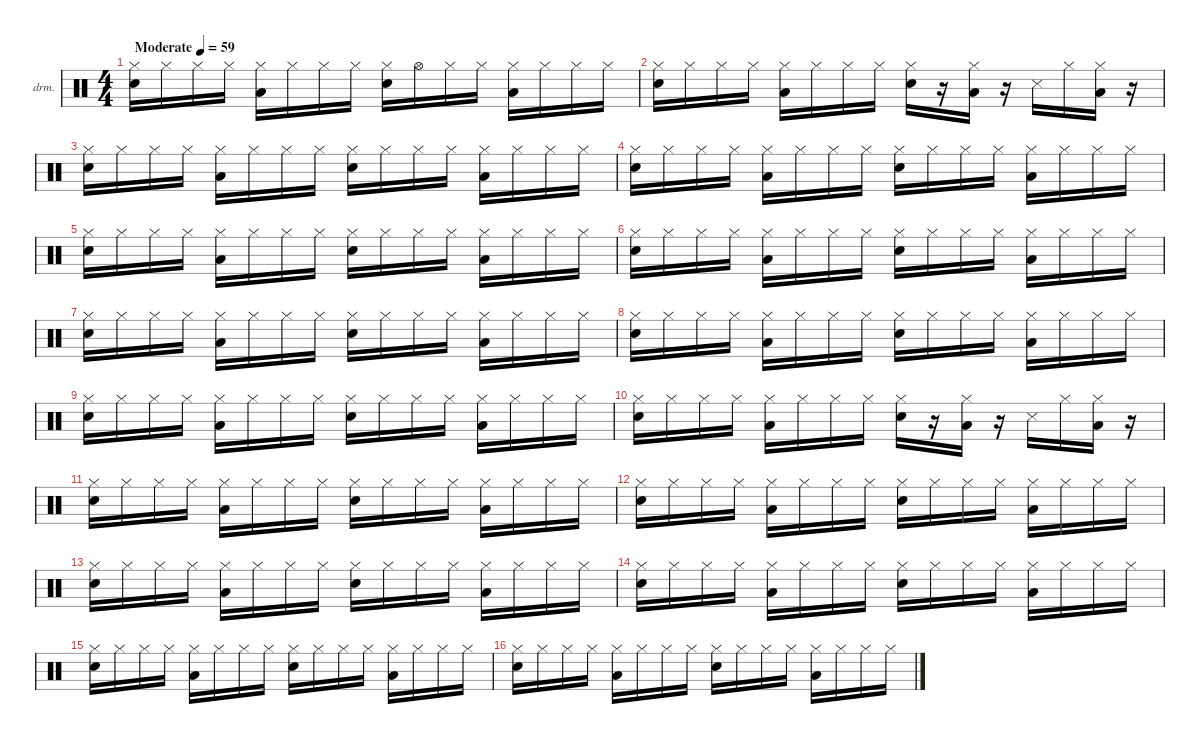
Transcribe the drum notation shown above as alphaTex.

\hideDynamics
\bracketExtendMode nobrackets
\firstSystemTrackNameOrientation horizontal
\track ("鸥厩扁" "drm.") {instrument percussion}
\staff {score}
\articulation defaults
\ts (4 4)
\beaming (8 2 2 2 2)
\tempo (59 "Moderate")
\clef neutral
\ks c
("Hi-Hat (closed)" "Snare (hit) 2").16{dy f} "Hi-Hat (closed)".16 "Hi-Hat (closed)".16 "Hi-Hat (closed)".16 ("Hi-Hat (closed)" "Low Floor Tom (hit)").16 "Hi-Hat (closed)".16 "Hi-Hat (closed)".16 "Hi-Hat (closed)".16 ("Hi-Hat (closed)" "Snare (hit) 2").16 "Hi-Hat (open)".16 "Hi-Hat (closed)".16 "Hi-Hat (closed)".16 ("Hi-Hat (closed)" "Low Floor Tom (hit)").16 "Hi-Hat (closed)".16 "Hi-Hat (closed)".16 "Hi-Hat (closed)".16 |
("Hi-Hat (closed)" "Snare (hit) 2").16 "Hi-Hat (closed)".16 "Hi-Hat (closed)".16 "Hi-Hat (closed)".16 ("Hi-Hat (closed)" "Low Floor Tom (hit)").16 "Hi-Hat (closed)".16 "Hi-Hat (closed)".16 "Hi-Hat (closed)".16 ("Hi-Hat (closed)" "Snare (hit) 2").16 r.16 ("Hi-Hat (closed)" "Low Floor Tom (hit)").16 r.16 "Snare (side stick) 3".16 "Hi-Hat (closed)".16 ("Hi-Hat (closed)" "Low Floor Tom (hit)").16 r.16 |
("Hi-Hat (closed)" "Snare (hit) 2").16 "Hi-Hat (closed)".16 "Hi-Hat (closed)".16 "Hi-Hat (closed)".16 ("Hi-Hat (closed)" "Low Floor Tom (hit)").16 "Hi-Hat (closed)".16 "Hi-Hat (closed)".16 "Hi-Hat (closed)".16 ("Hi-Hat (closed)" "Snare (hit) 2").16 "Hi-Hat (closed)".16 "Hi-Hat (closed)".16 "Hi-Hat (closed)".16 ("Hi-Hat (closed)" "Low Floor Tom (hit)").16 "Hi-Hat (closed)".16 "Hi-Hat (closed)".16 "Hi-Hat (closed)".16 |
("Hi-Hat (closed)" "Snare (hit) 2").16 "Hi-Hat (closed)".16 "Hi-Hat (closed)".16 "Hi-Hat (closed)".16 ("Hi-Hat (closed)" "Low Floor Tom (hit)").16 "Hi-Hat (closed)".16 "Hi-Hat (closed)".16 "Hi-Hat (closed)".16 ("Hi-Hat (closed)" "Snare (hit) 2").16 "Hi-Hat (closed)".16 "Hi-Hat (closed)".16 "Hi-Hat (closed)".16 ("Hi-Hat (closed)" "Low Floor Tom (hit)").16 "Hi-Hat (closed)".16 "Hi-Hat (closed)".16 "Hi-Hat (closed)".16 |
("Hi-Hat (closed)" "Snare (hit) 2").16 "Hi-Hat (closed)".16 "Hi-Hat (closed)".16 "Hi-Hat (closed)".16 ("Hi-Hat (closed)" "Low Floor Tom (hit)").16 "Hi-Hat (closed)".16 "Hi-Hat (closed)".16 "Hi-Hat (closed)".16 ("Hi-Hat (closed)" "Snare (hit) 2").16 "Hi-Hat (closed)".16 "Hi-Hat (closed)".16 "Hi-Hat (closed)".16 ("Hi-Hat (closed)" "Low Floor Tom (hit)").16 "Hi-Hat (closed)".16 "Hi-Hat (closed)".16 "Hi-Hat (closed)".16 |
("Hi-Hat (closed)" "Snare (hit) 2").16 "Hi-Hat (closed)".16 "Hi-Hat (closed)".16 "Hi-Hat (closed)".16 ("Hi-Hat (closed)" "Low Floor Tom (hit)").16 "Hi-Hat (closed)".16 "Hi-Hat (closed)".16 "Hi-Hat (closed)".16 ("Hi-Hat (closed)" "Snare (hit) 2").16 "Hi-Hat (closed)".16 "Hi-Hat (closed)".16 "Hi-Hat (closed)".16 ("Hi-Hat (closed)" "Low Floor Tom (hit)").16 "Hi-Hat (closed)".16 "Hi-Hat (closed)".16 "Hi-Hat (closed)".16 |
("Hi-Hat (closed)" "Snare (hit) 2").16 "Hi-Hat (closed)".16 "Hi-Hat (closed)".16 "Hi-Hat (closed)".16 ("Hi-Hat (closed)" "Low Floor Tom (hit)").16 "Hi-Hat (closed)".16 "Hi-Hat (closed)".16 "Hi-Hat (closed)".16 ("Hi-Hat (closed)" "Snare (hit) 2").16 "Hi-Hat (closed)".16 "Hi-Hat (closed)".16 "Hi-Hat (closed)".16 ("Hi-Hat (closed)" "Low Floor Tom (hit)").16 "Hi-Hat (closed)".16 "Hi-Hat (closed)".16 "Hi-Hat (closed)".16 |
("Hi-Hat (closed)" "Snare (hit) 2").16 "Hi-Hat (closed)".16 "Hi-Hat (closed)".16 "Hi-Hat (closed)".16 ("Hi-Hat (closed)" "Low Floor Tom (hit)").16 "Hi-Hat (closed)".16 "Hi-Hat (closed)".16 "Hi-Hat (closed)".16 ("Hi-Hat (closed)" "Snare (hit) 2").16 "Hi-Hat (closed)".16 "Hi-Hat (closed)".16 "Hi-Hat (closed)".16 ("Hi-Hat (closed)" "Low Floor Tom (hit)").16 "Hi-Hat (closed)".16 "Hi-Hat (closed)".16 "Hi-Hat (closed)".16 |
("Hi-Hat (closed)" "Snare (hit) 2").16 "Hi-Hat (closed)".16 "Hi-Hat (closed)".16 "Hi-Hat (closed)".16 ("Hi-Hat (closed)" "Low Floor Tom (hit)").16 "Hi-Hat (closed)".16 "Hi-Hat (closed)".16 "Hi-Hat (closed)".16 ("Hi-Hat (closed)" "Snare (hit) 2").16 "Hi-Hat (closed)".16 "Hi-Hat (closed)".16 "Hi-Hat (closed)".16 ("Hi-Hat (closed)" "Low Floor Tom (hit)").16 "Hi-Hat (closed)".16 "Hi-Hat (closed)".16 "Hi-Hat (closed)".16 |
("Hi-Hat (closed)" "Snare (hit) 2").16 "Hi-Hat (closed)".16 "Hi-Hat (closed)".16 "Hi-Hat (closed)".16 ("Hi-Hat (closed)" "Low Floor Tom (hit)").16 "Hi-Hat (closed)".16 "Hi-Hat (closed)".16 "Hi-Hat (closed)".16 ("Hi-Hat (closed)" "Snare (hit) 2").16 r.16 ("Hi-Hat (closed)" "Low Floor Tom (hit)").16 r.16 "Snare (side stick) 3".16 "Hi-Hat (closed)".16 ("Hi-Hat (closed)" "Low Floor Tom (hit)").16 r.16 |
("Hi-Hat (closed)" "Snare (hit) 2").16 "Hi-Hat (closed)".16 "Hi-Hat (closed)".16 "Hi-Hat (closed)".16 ("Hi-Hat (closed)" "Low Floor Tom (hit)").16 "Hi-Hat (closed)".16 "Hi-Hat (closed)".16 "Hi-Hat (closed)".16 ("Hi-Hat (closed)" "Snare (hit) 2").16 "Hi-Hat (closed)".16 "Hi-Hat (closed)".16 "Hi-Hat (closed)".16 ("Hi-Hat (closed)" "Low Floor Tom (hit)").16 "Hi-Hat (closed)".16 "Hi-Hat (closed)".16 "Hi-Hat (closed)".16 |
("Hi-Hat (closed)" "Snare (hit) 2").16 "Hi-Hat (closed)".16 "Hi-Hat (closed)".16 "Hi-Hat (closed)".16 ("Hi-Hat (closed)" "Low Floor Tom (hit)").16 "Hi-Hat (closed)".16 "Hi-Hat (closed)".16 "Hi-Hat (closed)".16 ("Hi-Hat (closed)" "Snare (hit) 2").16 "Hi-Hat (closed)".16 "Hi-Hat (closed)".16 "Hi-Hat (closed)".16 ("Hi-Hat (closed)" "Low Floor Tom (hit)").16 "Hi-Hat (closed)".16 "Hi-Hat (closed)".16 "Hi-Hat (closed)".16 |
("Hi-Hat (closed)" "Snare (hit) 2").16 "Hi-Hat (closed)".16 "Hi-Hat (closed)".16 "Hi-Hat (closed)".16 ("Hi-Hat (closed)" "Low Floor Tom (hit)").16 "Hi-Hat (closed)".16 "Hi-Hat (closed)".16 "Hi-Hat (closed)".16 ("Hi-Hat (closed)" "Snare (hit) 2").16 "Hi-Hat (closed)".16 "Hi-Hat (closed)".16 "Hi-Hat (closed)".16 ("Hi-Hat (closed)" "Low Floor Tom (hit)").16 "Hi-Hat (closed)".16 "Hi-Hat (closed)".16 "Hi-Hat (closed)".16 |
("Hi-Hat (closed)" "Snare (hit) 2").16 "Hi-Hat (closed)".16 "Hi-Hat (closed)".16 "Hi-Hat (closed)".16 ("Hi-Hat (closed)" "Low Floor Tom (hit)").16 "Hi-Hat (closed)".16 "Hi-Hat (closed)".16 "Hi-Hat (closed)".16 ("Hi-Hat (closed)" "Snare (hit) 2").16 "Hi-Hat (closed)".16 "Hi-Hat (closed)".16 "Hi-Hat (closed)".16 ("Hi-Hat (closed)" "Low Floor Tom (hit)").16 "Hi-Hat (closed)".16 "Hi-Hat (closed)".16 "Hi-Hat (closed)".16 |
("Hi-Hat (closed)" "Snare (hit) 2").16 "Hi-Hat (closed)".16 "Hi-Hat (closed)".16 "Hi-Hat (closed)".16 ("Hi-Hat (closed)" "Low Floor Tom (hit)").16 "Hi-Hat (closed)".16 "Hi-Hat (closed)".16 "Hi-Hat (closed)".16 ("Hi-Hat (closed)" "Snare (hit) 2").16 "Hi-Hat (closed)".16 "Hi-Hat (closed)".16 "Hi-Hat (closed)".16 ("Hi-Hat (closed)" "Low Floor Tom (hit)").16 "Hi-Hat (closed)".16 "Hi-Hat (closed)".16 "Hi-Hat (closed)".16 |
("Hi-Hat (closed)" "Snare (hit) 2").16 "Hi-Hat (closed)".16 "Hi-Hat (closed)".16 "Hi-Hat (closed)".16 ("Hi-Hat (closed)" "Low Floor Tom (hit)").16 "Hi-Hat (closed)".16 "Hi-Hat (closed)".16 "Hi-Hat (closed)".16 ("Hi-Hat (closed)" "Snare (hit) 2").16 "Hi-Hat (closed)".16 "Hi-Hat (closed)".16 "Hi-Hat (closed)".16 ("Hi-Hat (closed)" "Low Floor Tom (hit)").16 "Hi-Hat (closed)".16 "Hi-Hat (closed)".16 "Hi-Hat (closed)".16
